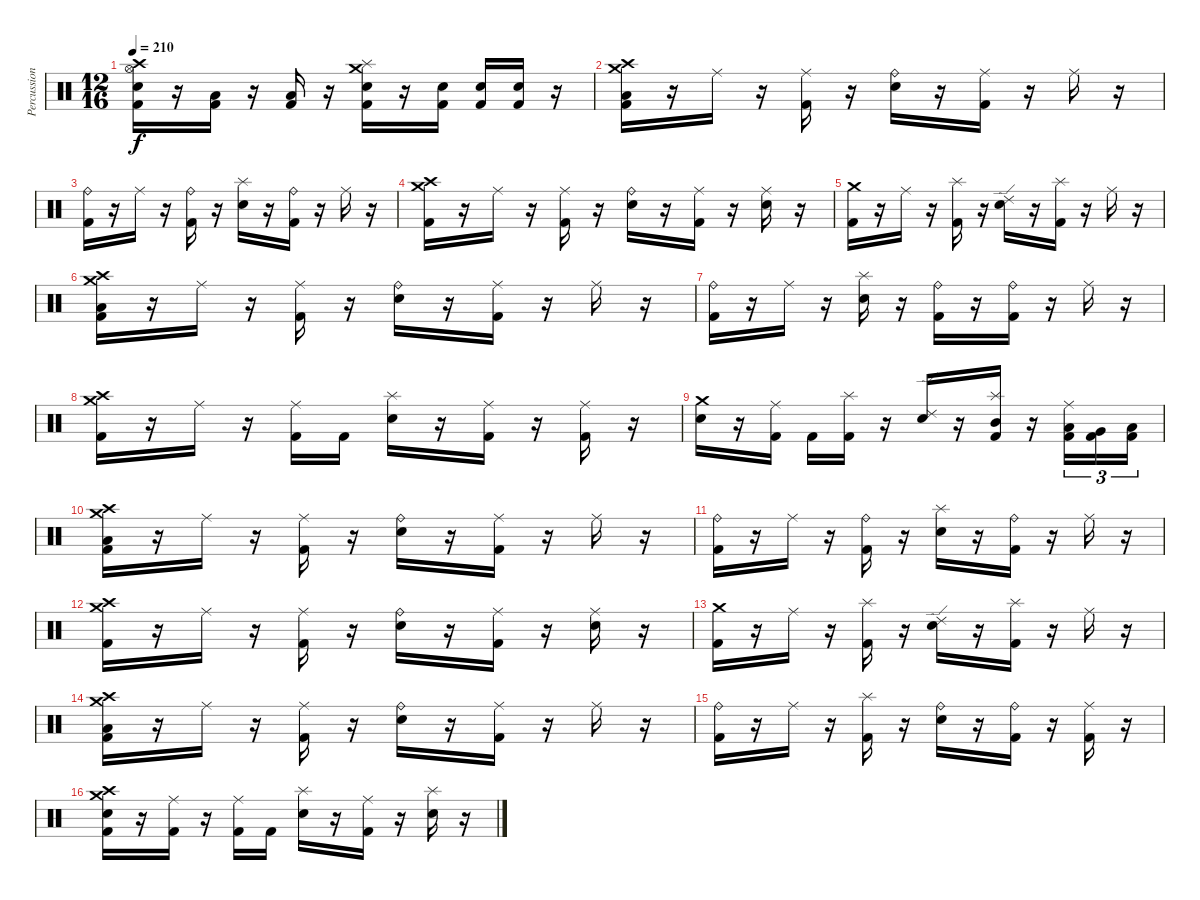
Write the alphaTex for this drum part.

\track ("Percussion" "Percussion") {instrument percussion}
\staff {score}
\articulation defaults
\ts (12 16)
\tempo 210
\clef neutral
\ks c
("Crash high (hit)" "Hi-Hat (open)" "Electric Snare (hit)" "Kick (hit) 2").16{dy f} r.16 ("Low Tom (hit)" "Kick (hit) 2").16 r.16 ("Low Floor Tom (hit)" "Kick (hit) 2").16 r.16 ("Crash medium (hit)" "Splash (hit)" "Electric Snare (hit)" "Kick (hit) 2").16 r.16 ("Electric Snare (hit)" "Kick (hit) 2").16 ("Electric Snare (hit)" "Kick (hit) 2").16 ("Electric Snare (hit)" "Kick (hit) 2").16 r.16 |
("Crash high (hit)" "Crash medium (hit)" "Low Floor Tom (hit)" "Kick (hit) 2").16 r.16 "Ride (middle)".16 r.16 ("Ride (middle)" "Kick (hit) 2").16 r.16 ("Ride (bell)" "Electric Snare (hit)").16 r.16 ("Ride (middle)" "Kick (hit) 2").16 r.16 "Ride (middle)".16 r.16 |
("Ride (bell)" "Kick (hit) 2").16 r.16 "Ride (middle)".16 r.16 ("Ride (bell)" "Kick (hit) 2").16 r.16 ("Splash (hit)" "Electric Snare (hit)").16 r.16 ("Ride (bell)" "Kick (hit) 2").16 r.16 "Ride (middle)".16 r.16 |
("Crash high (hit)" "Crash medium (hit)" "Kick (hit) 2").16 r.16 "Ride (middle)".16 r.16 ("Ride (middle)" "Kick (hit) 2").16 r.16 ("Ride (bell)" "Electric Snare (hit)").16 r.16 ("Ride (middle)" "Kick (hit) 2").16 r.16 ("Ride (middle)" "Electric Snare (hit)").16 r.16 |
("Crash medium (hit)" "Kick (hit) 2").16 r.16 "Ride (middle)".16 r.16 ("Splash (hit)" "Kick (hit) 2").16 r.16 ("Ride (edge) 2" "Electric Snare (hit)").16 r.16 ("Splash (hit)" "Kick (hit) 2").16 r.16 "Ride (middle)".16 r.16 |
("Crash high (hit)" "Crash medium (hit)" "Low Floor Tom (hit)" "Kick (hit) 2").16 r.16 "Ride (middle)".16 r.16 ("Ride (middle)" "Kick (hit) 2").16 r.16 ("Ride (bell)" "Electric Snare (hit)").16 r.16 ("Ride (middle)" "Kick (hit) 2").16 r.16 "Ride (middle)".16 r.16 |
("Ride (bell)" "Kick (hit) 2").16 r.16 "Ride (middle)".16 r.16 ("Splash (hit)" "Electric Snare (hit)").16 r.16 ("Ride (bell)" "Kick (hit) 2").16 r.16 ("Ride (bell)" "Kick (hit) 2").16 r.16 "Ride (middle)".16 r.16 |
("Crash high (hit)" "Crash medium (hit)" "Kick (hit) 2").16 r.16 "Ride (middle)".16 r.16 ("Ride (middle)" "Kick (hit) 2").16 "Kick (hit) 2".16 ("Splash (hit)" "Electric Snare (hit)").16 r.16 ("Ride (middle)" "Kick (hit) 2").16 r.16 ("Ride (middle)" "Kick (hit) 2").16 r.16 |
("Crash medium (hit)" "Electric Snare (hit)").16 r.16 ("Ride (middle)" "Kick (hit) 2").16 "Kick (hit) 2".16 ("Splash (hit)" "Kick (hit) 2").16 r.16 ("Ride (edge) 2" "Electric Snare (hit)").16 r.16 ("Splash (hit)" "Mid Tom (hit)" "Kick (hit) 2").16 r.16 ("Ride (middle)" "Low Tom (hit)" "Kick (hit) 2").16{tu (3 2)} ("Very Low Tom (hit)" "Kick (hit) 2").16{tu (3 2)} ("Low Floor Tom (hit)" "Kick (hit) 2").16{tu (3 2)} |
("Crash high (hit)" "Crash medium (hit)" "Low Floor Tom (hit)" "Kick (hit) 2").16 r.16 "Ride (middle)".16 r.16 ("Ride (middle)" "Kick (hit) 2").16 r.16 ("Ride (bell)" "Electric Snare (hit)").16 r.16 ("Ride (middle)" "Kick (hit) 2").16 r.16 "Ride (middle)".16 r.16 |
("Ride (bell)" "Kick (hit) 2").16 r.16 "Ride (middle)".16 r.16 ("Ride (bell)" "Kick (hit) 2").16 r.16 ("Splash (hit)" "Electric Snare (hit)").16 r.16 ("Ride (bell)" "Kick (hit) 2").16 r.16 "Ride (middle)".16 r.16 |
("Crash high (hit)" "Crash medium (hit)" "Kick (hit) 2").16 r.16 "Ride (middle)".16 r.16 ("Ride (middle)" "Kick (hit) 2").16 r.16 ("Ride (bell)" "Electric Snare (hit)").16 r.16 ("Ride (middle)" "Kick (hit) 2").16 r.16 ("Ride (middle)" "Electric Snare (hit)").16 r.16 |
("Crash medium (hit)" "Kick (hit) 2").16 r.16 "Ride (middle)".16 r.16 ("Splash (hit)" "Kick (hit) 2").16 r.16 ("Ride (edge) 2" "Electric Snare (hit)").16 r.16 ("Splash (hit)" "Kick (hit) 2").16 r.16 "Ride (middle)".16 r.16 |
("Crash high (hit)" "Crash medium (hit)" "Low Floor Tom (hit)" "Kick (hit) 2").16 r.16 "Ride (middle)".16 r.16 ("Ride (middle)" "Kick (hit) 2").16 r.16 ("Ride (bell)" "Electric Snare (hit)").16 r.16 ("Ride (middle)" "Kick (hit) 2").16 r.16 "Ride (middle)".16 r.16 |
("Ride (bell)" "Kick (hit) 2").16 r.16 "Ride (middle)".16 r.16 ("Splash (hit)" "Kick (hit) 2").16 r.16 ("Ride (bell)" "Electric Snare (hit)").16 r.16 ("Ride (bell)" "Kick (hit) 2").16 r.16 ("Ride (middle)" "Kick (hit) 2").16 r.16 |
("Crash high (hit)" "Crash medium (hit)" "Electric Snare (hit)" "Kick (hit) 2").16 r.16 ("Ride (middle)" "Kick (hit) 2").16 r.16 ("Ride (middle)" "Kick (hit) 2").16 "Kick (hit) 2".16 ("Splash (hit)" "Electric Snare (hit)").16 r.16 ("Ride (middle)" "Kick (hit) 2").16 r.16 ("Splash (hit)" "Electric Snare (hit)").16 r.16
